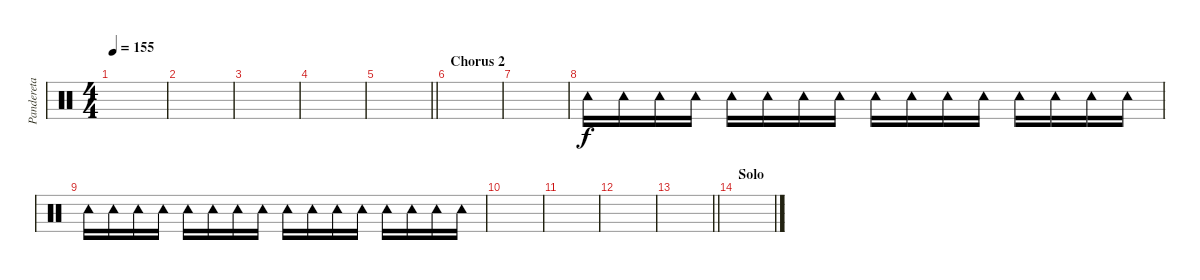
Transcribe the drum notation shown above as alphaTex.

\track ("Pandereta" "Pandereta") {instrument percussion}
\staff {score}
\articulation defaults
\ts (4 4)
\tempo 155
\clef neutral
\ks c
|
|
|
|
\barLineRight lightlight
|
\section ("" "Chorus 2")
|
|
"Tambourine (hit)".16 "Tambourine (hit)".16 "Tambourine (hit)".16 "Tambourine (hit)".16 "Tambourine (hit)".16 "Tambourine (hit)".16 "Tambourine (hit)".16 "Tambourine (hit)".16 "Tambourine (hit)".16 "Tambourine (hit)".16 "Tambourine (hit)".16 "Tambourine (hit)".16 "Tambourine (hit)".16 "Tambourine (hit)".16 "Tambourine (hit)".16 "Tambourine (hit)".16 |
"Tambourine (hit)".16 "Tambourine (hit)".16 "Tambourine (hit)".16 "Tambourine (hit)".16 "Tambourine (hit)".16 "Tambourine (hit)".16 "Tambourine (hit)".16 "Tambourine (hit)".16 "Tambourine (hit)".16 "Tambourine (hit)".16 "Tambourine (hit)".16 "Tambourine (hit)".16 "Tambourine (hit)".16 "Tambourine (hit)".16 "Tambourine (hit)".16 "Tambourine (hit)".16 |
|
|
|
\barLineRight lightlight
|
\section ("" "Solo")
